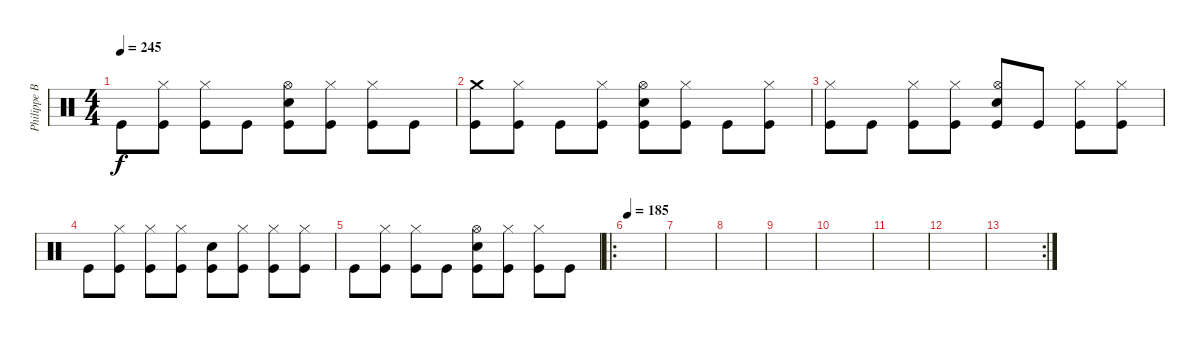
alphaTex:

\track ("Philippe Boucher" "Philippe B") {instrument percussion}
\staff {score}
\articulation defaults
\ts (4 4)
\tempo 245
\clef neutral
\ks c "Kick (hit)".8{dy f}
("Hi-Hat (closed)" "Kick (hit)").8 ("Hi-Hat (closed)" "Kick (hit)").8 "Kick (hit)".8 ("Hi-Hat (open)" "Electric Snare (hit)" "Kick (hit)").8 ("Hi-Hat (closed)" "Kick (hit)").8 ("Hi-Hat (closed)" "Kick (hit)").8 "Kick (hit)".8 |
("Crash medium (hit)" "Kick (hit)").8 ("Hi-Hat (closed)" "Kick (hit)").8 "Kick (hit)".8 ("Hi-Hat (closed)" "Kick (hit)").8 ("Hi-Hat (open)" "Electric Snare (hit)" "Kick (hit)").8 ("Hi-Hat (closed)" "Kick (hit)").8 "Kick (hit)".8 ("Hi-Hat (closed)" "Kick (hit)").8 |
("Hi-Hat (closed)" "Kick (hit)").8 "Kick (hit)".8 ("Hi-Hat (closed)" "Kick (hit)").8 ("Hi-Hat (closed)" "Kick (hit)").8 ("Hi-Hat (open)" "Electric Snare (hit)" "Kick (hit)").8 "Kick (hit)".8 ("Hi-Hat (closed)" "Kick (hit)").8 ("Hi-Hat (closed)" "Kick (hit)").8 |
"Kick (hit)".8 ("Hi-Hat (closed)" "Kick (hit)").8 ("Hi-Hat (closed)" "Kick (hit)").8 ("Hi-Hat (closed)" "Kick (hit)").8 ("Electric Snare (hit)" "Kick (hit)").8 ("Hi-Hat (closed)" "Kick (hit)").8 ("Hi-Hat (closed)" "Kick (hit)").8 ("Hi-Hat (closed)" "Kick (hit)").8 |
"Kick (hit)".8 ("Hi-Hat (closed)" "Kick (hit)").8 ("Hi-Hat (closed)" "Kick (hit)").8 "Kick (hit)".8 ("Hi-Hat (open)" "Electric Snare (hit)" "Kick (hit)").8 ("Hi-Hat (closed)" "Kick (hit)").8 ("Hi-Hat (closed)" "Kick (hit)").8 "Kick (hit)".8 |
\ro
\tempo 185
|
|
|
|
|
|
|
\rc 2
